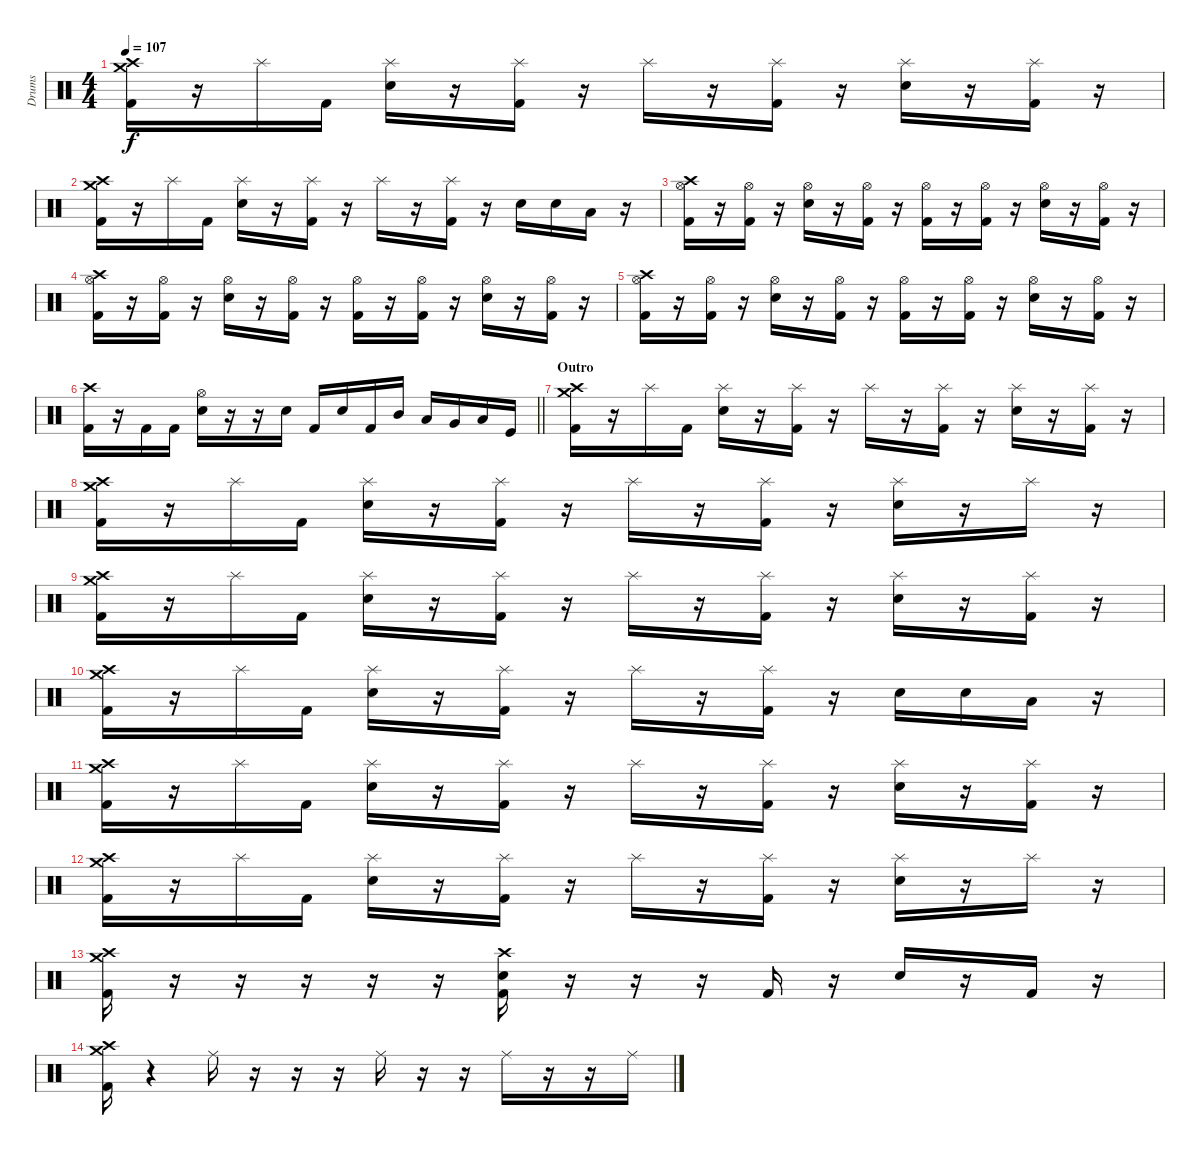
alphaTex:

\track ("Drums" "Drums") {instrument percussion}
\staff {score}
\articulation defaults
\ts (4 4)
\tempo 107
\clef neutral
\ks c
("Crash medium (hit)" "Crash high (hit)" "Kick (hit) 2").16{dy f} r.16 "Splash (hit)".16 "Kick (hit) 2".16 ("Splash (hit)" "Electric Snare (hit)").16 r.16 ("Splash (hit)" "Kick (hit) 2").16 r.16 "Splash (hit)".16 r.16 ("Splash (hit)" "Kick (hit) 2").16 r.16 ("Splash (hit)" "Electric Snare (hit)").16 r.16 ("Splash (hit)" "Kick (hit) 2").16 r.16 |
("Crash medium (hit)" "Crash high (hit)" "Kick (hit) 2").16 r.16 "Splash (hit)".16 "Kick (hit) 2".16 ("Splash (hit)" "Electric Snare (hit)").16 r.16 ("Splash (hit)" "Kick (hit) 2").16 r.16 "Splash (hit)".16 r.16 ("Splash (hit)" "Kick (hit) 2").16 r.16 "Electric Snare (hit)".16 "Electric Snare (hit)".16 "Low Floor Tom (hit)".16 r.16 |
("Crash high (hit)" "Hi-Hat (open)" "Kick (hit) 2").16 r.16 ("Hi-Hat (open)" "Kick (hit) 2").16 r.16 ("Hi-Hat (open)" "Electric Snare (hit)").16 r.16 ("Hi-Hat (open)" "Kick (hit) 2").16 r.16 ("Hi-Hat (open)" "Kick (hit) 2").16 r.16 ("Hi-Hat (open)" "Kick (hit) 2").16 r.16 ("Hi-Hat (open)" "Electric Snare (hit)").16 r.16 ("Hi-Hat (open)" "Kick (hit) 2").16 r.16 |
("Crash high (hit)" "Hi-Hat (open)" "Kick (hit) 2").16 r.16 ("Hi-Hat (open)" "Kick (hit) 2").16 r.16 ("Hi-Hat (open)" "Electric Snare (hit)").16 r.16 ("Hi-Hat (open)" "Kick (hit) 2").16 r.16 ("Hi-Hat (open)" "Kick (hit) 2").16 r.16 ("Hi-Hat (open)" "Kick (hit) 2").16 r.16 ("Hi-Hat (open)" "Electric Snare (hit)").16 r.16 ("Hi-Hat (open)" "Kick (hit) 2").16 r.16 |
("Crash high (hit)" "Hi-Hat (open)" "Kick (hit) 2").16 r.16 ("Hi-Hat (open)" "Kick (hit) 2").16 r.16 ("Hi-Hat (open)" "Electric Snare (hit)").16 r.16 ("Hi-Hat (open)" "Kick (hit) 2").16 r.16 ("Hi-Hat (open)" "Kick (hit) 2").16 r.16 ("Hi-Hat (open)" "Kick (hit) 2").16 r.16 ("Hi-Hat (open)" "Electric Snare (hit)").16 r.16 ("Hi-Hat (open)" "Kick (hit) 2").16 r.16 |
\barLineRight lightlight
("Crash high (hit)" "Kick (hit) 2").16 r.16 "Kick (hit) 2".16 "Kick (hit) 2".16 ("Hi-Hat (open)" "Electric Snare (hit)").16 r.16 r.16 "Electric Snare (hit)".16 "Kick (hit) 2".16 "Electric Snare (hit)".16 "Kick (hit) 2".16 "Mid Tom (hit)".16 "Low Tom (hit)".16 "Very Low Tom (hit)".16 "Low Floor Tom (hit)".16 "Kick (hit)".16 |
\section ("" "Outro")
("Crash medium (hit)" "Crash high (hit)" "Kick (hit) 2").16 r.16 "Splash (hit)".16 "Kick (hit) 2".16 ("Splash (hit)" "Electric Snare (hit)").16 r.16 ("Splash (hit)" "Kick (hit) 2").16 r.16 "Splash (hit)".16 r.16 ("Splash (hit)" "Kick (hit) 2").16 r.16 ("Splash (hit)" "Electric Snare (hit)").16 r.16 ("Splash (hit)" "Kick (hit) 2").16 r.16 |
("Crash medium (hit)" "Crash high (hit)" "Kick (hit) 2").16 r.16 "Splash (hit)".16 "Kick (hit) 2".16 ("Splash (hit)" "Electric Snare (hit)").16 r.16 ("Splash (hit)" "Kick (hit) 2").16 r.16 "Splash (hit)".16 r.16 ("Splash (hit)" "Kick (hit) 2").16 r.16 ("Splash (hit)" "Electric Snare (hit)").16 r.16 "Splash (hit)".16 r.16 |
("Crash medium (hit)" "Crash high (hit)" "Kick (hit) 2").16 r.16 "Splash (hit)".16 "Kick (hit) 2".16 ("Splash (hit)" "Electric Snare (hit)").16 r.16 ("Splash (hit)" "Kick (hit) 2").16 r.16 "Splash (hit)".16 r.16 ("Splash (hit)" "Kick (hit) 2").16 r.16 ("Splash (hit)" "Electric Snare (hit)").16 r.16 ("Splash (hit)" "Kick (hit) 2").16 r.16 |
("Crash medium (hit)" "Crash high (hit)" "Kick (hit) 2").16 r.16 "Splash (hit)".16 "Kick (hit) 2".16 ("Splash (hit)" "Electric Snare (hit)").16 r.16 ("Splash (hit)" "Kick (hit) 2").16 r.16 "Splash (hit)".16 r.16 ("Splash (hit)" "Kick (hit) 2").16 r.16 "Electric Snare (hit)".16 "Electric Snare (hit)".16 "Low Floor Tom (hit)".16 r.16 |
("Crash medium (hit)" "Crash high (hit)" "Kick (hit) 2").16 r.16 "Splash (hit)".16 "Kick (hit) 2".16 ("Splash (hit)" "Electric Snare (hit)").16 r.16 ("Splash (hit)" "Kick (hit) 2").16 r.16 "Splash (hit)".16 r.16 ("Splash (hit)" "Kick (hit) 2").16 r.16 ("Splash (hit)" "Electric Snare (hit)").16 r.16 ("Splash (hit)" "Kick (hit) 2").16 r.16 |
("Crash medium (hit)" "Crash high (hit)" "Kick (hit) 2").16 r.16 "Splash (hit)".16 "Kick (hit) 2".16 ("Splash (hit)" "Electric Snare (hit)").16 r.16 ("Splash (hit)" "Kick (hit) 2").16 r.16 "Splash (hit)".16 r.16 ("Splash (hit)" "Kick (hit) 2").16 r.16 ("Splash (hit)" "Electric Snare (hit)").16 r.16 "Splash (hit)".16 r.16 |
("Crash medium (hit)" "Crash high (hit)" "Kick (hit) 2").16 r.16 r.16 r.16 r.16 r.16 ("Crash high (hit)" "Electric Snare (hit)" "Kick (hit) 2").16 r.16 r.16 r.16 "Kick (hit) 2".16 r.16 "Electric Snare (hit)".16 r.16 "Kick (hit) 2".16 r.16 |
("Crash medium (hit)" "Crash high (hit)" "Kick (hit) 2").16 r.4 "Ride (middle)".16 r.16 r.16 r.16 "Ride (middle)".16 r.16 r.16 "Ride (middle)".16 r.16 r.16 "Ride (middle)".16
